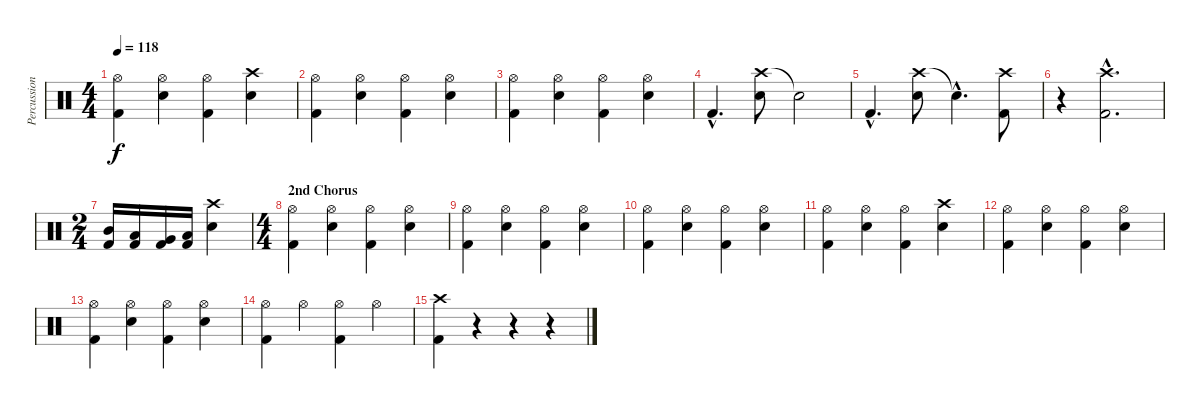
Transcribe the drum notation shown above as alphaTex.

\track ("Percussion" "Percussion") {instrument percussion}
\staff {score}
\articulation defaults
\ts (4 4)
\tempo 118
\clef neutral
\ks c
("Hi-Hat (open)" "Kick (hit) 2").4{dy f} ("Hi-Hat (open)" "Snare (hit) 2").4 ("Hi-Hat (open)" "Kick (hit) 2").4 ("Crash high (hit)" "Snare (hit) 2").4 |
("Hi-Hat (open)" "Kick (hit) 2").4 ("Hi-Hat (open)" "Snare (hit) 2").4 ("Hi-Hat (open)" "Kick (hit) 2").4 ("Hi-Hat (open)" "Snare (hit) 2").4 |
("Hi-Hat (open)" "Kick (hit) 2").4 ("Hi-Hat (open)" "Snare (hit) 2").4 ("Hi-Hat (open)" "Kick (hit) 2").4 ("Hi-Hat (open)" "Snare (hit) 2").4 |
"Kick (hit) 2"{hac}.4{d} ("Crash high (hit)" "Snare (hit) 2").8 "Snare (hit)"{t}.2 |
"Kick (hit) 2"{hac}.4{d} ("Crash high (hit)" "Snare (hit) 2").8 "Snare (hit)"{hac t}.4{d} ("Crash high (hit)" "Kick (hit) 2").8 |
r.4 ("Crash high (hit)"{hac} "Kick (hit) 2"{hac}).2{d} |
\ts (2 4)
("Mid Tom (hit)" "Kick (hit) 2").16 ("Low Tom (hit)" "Kick (hit) 2").16 ("Very Low Tom (hit)" "Kick (hit) 2").16 ("Low Floor Tom (hit)" "Kick (hit) 2").16 ("Crash high (hit)" "Snare (hit) 2").4 |
\ts (4 4)
\section ("" "2nd Chorus")
("Hi-Hat (open)" "Kick (hit) 2").4 ("Hi-Hat (open)" "Snare (hit) 2").4 ("Hi-Hat (open)" "Kick (hit) 2").4 ("Hi-Hat (open)" "Snare (hit) 2").4 |
("Hi-Hat (open)" "Kick (hit) 2").4 ("Hi-Hat (open)" "Snare (hit) 2").4 ("Hi-Hat (open)" "Kick (hit) 2").4 ("Hi-Hat (open)" "Snare (hit) 2").4 |
("Hi-Hat (open)" "Kick (hit) 2").4 ("Hi-Hat (open)" "Snare (hit) 2").4 ("Hi-Hat (open)" "Kick (hit) 2").4 ("Hi-Hat (open)" "Snare (hit) 2").4 |
("Hi-Hat (open)" "Kick (hit) 2").4 ("Hi-Hat (open)" "Snare (hit) 2").4 ("Hi-Hat (open)" "Kick (hit) 2").4 ("Crash high (hit)" "Snare (hit) 2").4 |
("Hi-Hat (open)" "Kick (hit) 2").4 ("Hi-Hat (open)" "Snare (hit) 2").4 ("Hi-Hat (open)" "Kick (hit) 2").4 ("Hi-Hat (open)" "Snare (hit) 2").4 |
("Hi-Hat (open)" "Kick (hit) 2").4 ("Hi-Hat (open)" "Snare (hit) 2").4 ("Hi-Hat (open)" "Kick (hit) 2").4 ("Hi-Hat (open)" "Snare (hit) 2").4 |
("Hi-Hat (open)" "Kick (hit) 2").4 "Hi-Hat (open)".4 ("Hi-Hat (open)" "Kick (hit) 2").4 "Hi-Hat (open)".4 |
("Crash high (hit)" "Kick (hit) 2").4 r.4 r.4 r.4
